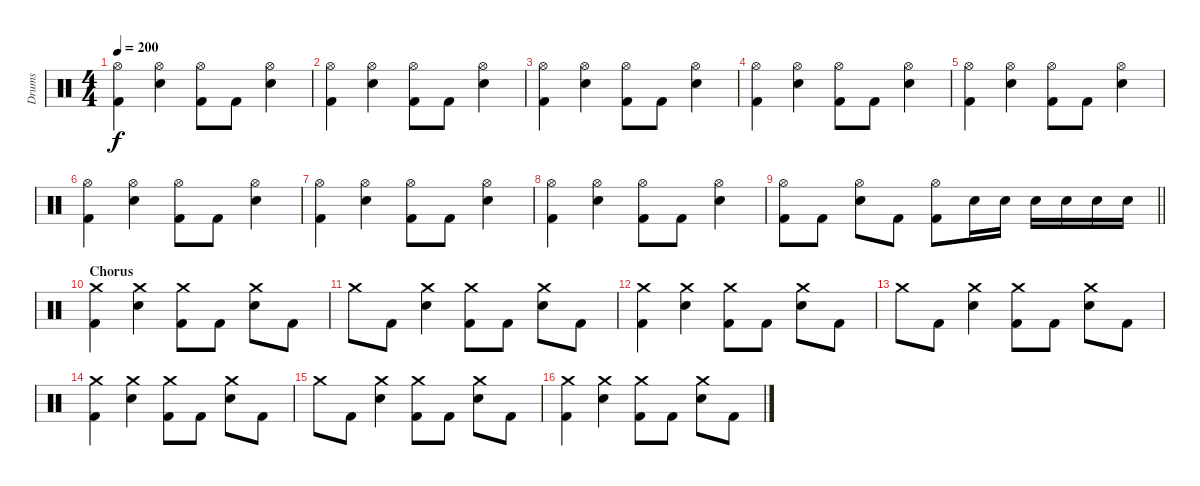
\track ("Drums" "Drums") {instrument percussion}
\staff {score}
\articulation defaults
\ts (4 4)
\tempo 200
\clef neutral
\ks c
("Hi-Hat (open)" "Kick (hit) 2").4{dy f} ("Hi-Hat (open)" "Electric Snare (hit)").4 ("Hi-Hat (open)" "Kick (hit) 2").8 "Kick (hit) 2".8 ("Hi-Hat (open)" "Electric Snare (hit)").4 |
("Hi-Hat (open)" "Kick (hit) 2").4 ("Hi-Hat (open)" "Electric Snare (hit)").4 ("Hi-Hat (open)" "Kick (hit) 2").8 "Kick (hit) 2".8 ("Hi-Hat (open)" "Electric Snare (hit)").4 |
("Hi-Hat (open)" "Kick (hit) 2").4 ("Hi-Hat (open)" "Electric Snare (hit)").4 ("Hi-Hat (open)" "Kick (hit) 2").8 "Kick (hit) 2".8 ("Hi-Hat (open)" "Electric Snare (hit)").4 |
("Hi-Hat (open)" "Kick (hit) 2").4 ("Hi-Hat (open)" "Electric Snare (hit)").4 ("Hi-Hat (open)" "Kick (hit) 2").8 "Kick (hit) 2".8 ("Hi-Hat (open)" "Electric Snare (hit)").4 |
("Hi-Hat (open)" "Kick (hit) 2").4 ("Hi-Hat (open)" "Electric Snare (hit)").4 ("Hi-Hat (open)" "Kick (hit) 2").8 "Kick (hit) 2".8 ("Hi-Hat (open)" "Electric Snare (hit)").4 |
("Hi-Hat (open)" "Kick (hit) 2").4 ("Hi-Hat (open)" "Electric Snare (hit)").4 ("Hi-Hat (open)" "Kick (hit) 2").8 "Kick (hit) 2".8 ("Hi-Hat (open)" "Electric Snare (hit)").4 |
("Hi-Hat (open)" "Kick (hit) 2").4 ("Hi-Hat (open)" "Electric Snare (hit)").4 ("Hi-Hat (open)" "Kick (hit) 2").8 "Kick (hit) 2".8 ("Hi-Hat (open)" "Electric Snare (hit)").4 |
("Hi-Hat (open)" "Kick (hit) 2").4 ("Hi-Hat (open)" "Electric Snare (hit)").4 ("Hi-Hat (open)" "Kick (hit) 2").8 "Kick (hit) 2".8 ("Hi-Hat (open)" "Electric Snare (hit)").4 |
\barLineRight lightlight
("Hi-Hat (open)" "Kick (hit) 2").8 "Kick (hit) 2".8 ("Hi-Hat (open)" "Electric Snare (hit)").8 "Kick (hit) 2".8 ("Hi-Hat (open)" "Kick (hit) 2").8 "Electric Snare (hit)".16 "Electric Snare (hit)".16 "Electric Snare (hit)".16 "Electric Snare (hit)".16 "Electric Snare (hit)".16 "Electric Snare (hit)".16 |
\section ("" "Chorus")
("Crash medium (hit)" "Kick (hit) 2").4 ("Crash medium (hit)" "Electric Snare (hit)").4 ("Crash medium (hit)" "Kick (hit) 2").8 "Kick (hit) 2".8 ("Crash medium (hit)" "Electric Snare (hit)").8 "Kick (hit) 2".8 |
"Crash medium (hit)".8 "Kick (hit) 2".8 ("Crash medium (hit)" "Electric Snare (hit)").4 ("Crash medium (hit)" "Kick (hit) 2").8 "Kick (hit) 2".8 ("Crash medium (hit)" "Electric Snare (hit)").8 "Kick (hit) 2".8 |
("Crash medium (hit)" "Kick (hit) 2").4 ("Crash medium (hit)" "Electric Snare (hit)").4 ("Crash medium (hit)" "Kick (hit) 2").8 "Kick (hit) 2".8 ("Crash medium (hit)" "Electric Snare (hit)").8 "Kick (hit) 2".8 |
"Crash medium (hit)".8 "Kick (hit) 2".8 ("Crash medium (hit)" "Electric Snare (hit)").4 ("Crash medium (hit)" "Kick (hit) 2").8 "Kick (hit) 2".8 ("Crash medium (hit)" "Electric Snare (hit)").8 "Kick (hit) 2".8 |
("Crash medium (hit)" "Kick (hit) 2").4 ("Crash medium (hit)" "Electric Snare (hit)").4 ("Crash medium (hit)" "Kick (hit) 2").8 "Kick (hit) 2".8 ("Crash medium (hit)" "Electric Snare (hit)").8 "Kick (hit) 2".8 |
"Crash medium (hit)".8 "Kick (hit) 2".8 ("Crash medium (hit)" "Electric Snare (hit)").4 ("Crash medium (hit)" "Kick (hit) 2").8 "Kick (hit) 2".8 ("Crash medium (hit)" "Electric Snare (hit)").8 "Kick (hit) 2".8 |
("Crash medium (hit)" "Kick (hit) 2").4 ("Crash medium (hit)" "Electric Snare (hit)").4 ("Crash medium (hit)" "Kick (hit) 2").8 "Kick (hit) 2".8 ("Crash medium (hit)" "Electric Snare (hit)").8 "Kick (hit) 2".8
